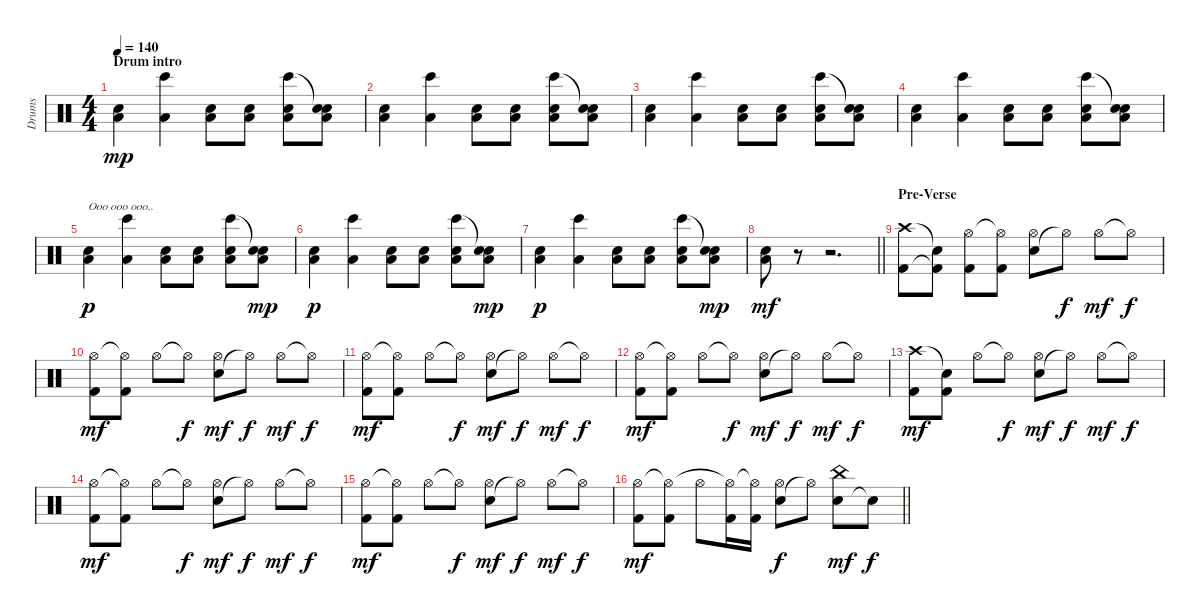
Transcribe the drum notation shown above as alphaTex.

\track ("Drums" "Drums") {instrument percussion}
\staff {score}
\articulation defaults
\ts (4 4)
\section ("" "Drum intro")
\tempo 140
\clef neutral
\ks c
("Low Floor Tom (hit)" "Hand Clap (hit)").4{dy mp} ("Low Floor Tom (hit)" "Bongo High (hit)").4 ("Low Floor Tom (hit)" "Hand Clap (hit)").8 ("Low Floor Tom (hit)" "Hand Clap (hit)").8 ("Low Floor Tom (hit)" "Hand Clap (hit)" "Bongo High (hit)").8 ("Low Floor Tom (hit)" "Hand Clap (hit)" "Snare (hit)"{t}).8 |
("Low Floor Tom (hit)" "Hand Clap (hit)").4 ("Low Floor Tom (hit)" "Bongo High (hit)").4 ("Low Floor Tom (hit)" "Hand Clap (hit)").8 ("Low Floor Tom (hit)" "Hand Clap (hit)").8 ("Low Floor Tom (hit)" "Hand Clap (hit)" "Bongo High (hit)").8 ("Low Floor Tom (hit)" "Hand Clap (hit)" "Snare (hit)"{t}).8 |
("Low Floor Tom (hit)" "Hand Clap (hit)").4 ("Low Floor Tom (hit)" "Bongo High (hit)").4 ("Low Floor Tom (hit)" "Hand Clap (hit)").8 ("Low Floor Tom (hit)" "Hand Clap (hit)").8 ("Low Floor Tom (hit)" "Hand Clap (hit)" "Bongo High (hit)").8 ("Low Floor Tom (hit)" "Hand Clap (hit)" "Snare (hit)"{t}).8 |
("Low Floor Tom (hit)" "Hand Clap (hit)").4 ("Low Floor Tom (hit)" "Bongo High (hit)").4 ("Low Floor Tom (hit)" "Hand Clap (hit)").8 ("Low Floor Tom (hit)" "Hand Clap (hit)").8 ("Low Floor Tom (hit)" "Hand Clap (hit)" "Bongo High (hit)").8 ("Low Floor Tom (hit)" "Hand Clap (hit)" "Snare (hit)"{t}).8 |
("Low Floor Tom (hit)" "Hand Clap (hit)").4{txt "Ooo ooo ooo.." dy p} ("Low Floor Tom (hit)" "Bongo High (hit)").4 ("Low Floor Tom (hit)" "Hand Clap (hit)").8 ("Low Floor Tom (hit)" "Hand Clap (hit)").8 ("Low Floor Tom (hit)" "Hand Clap (hit)" "Bongo High (hit)").8 ("Low Floor Tom (hit)" "Hand Clap (hit)" "Snare (hit)"{t}).8{dy mp} |
("Low Floor Tom (hit)" "Hand Clap (hit)").4{dy p} ("Low Floor Tom (hit)" "Bongo High (hit)").4 ("Low Floor Tom (hit)" "Hand Clap (hit)").8 ("Low Floor Tom (hit)" "Hand Clap (hit)").8 ("Low Floor Tom (hit)" "Hand Clap (hit)" "Bongo High (hit)").8 ("Low Floor Tom (hit)" "Hand Clap (hit)" "Snare (hit)"{t}).8{dy mp} |
("Low Floor Tom (hit)" "Hand Clap (hit)").4{dy p} ("Low Floor Tom (hit)" "Bongo High (hit)").4 ("Low Floor Tom (hit)" "Hand Clap (hit)").8 ("Low Floor Tom (hit)" "Hand Clap (hit)").8 ("Low Floor Tom (hit)" "Hand Clap (hit)" "Bongo High (hit)").8 ("Low Floor Tom (hit)" "Hand Clap (hit)" "Snare (hit)"{t}).8{dy mp} |
\barLineRight lightlight
("Low Floor Tom (hit)" "Hand Clap (hit)").8{dy mf} r.8 r.2{d} |
\section ("" "Pre-Verse")
("Kick (hit) 2" "Crash high (hit)").8 ("Kick (hit) 2"{t} "Snare (hit)"{t}).8 ("Kick (hit) 2" "Hi-Hat (open)").8 ("Kick (hit) 2" "Hi-Hat (open)"{t}).8 ("Snare (hit) 2" "Hi-Hat (open)").8 "Hi-Hat (open)"{t}.8{dy f} "Hi-Hat (open)".8{dy mf} "Hi-Hat (open)"{t}.8{dy f} |
("Kick (hit) 2" "Hi-Hat (open)").8{dy mf} ("Kick (hit) 2" "Hi-Hat (open)"{t}).8 "Hi-Hat (open)".8 "Hi-Hat (open)"{t}.8{dy f} ("Snare (hit) 2" "Hi-Hat (open)").8{dy mf} "Hi-Hat (open)"{t}.8{dy f} "Hi-Hat (open)".8{dy mf} "Hi-Hat (open)"{t}.8{dy f} |
("Kick (hit) 2" "Hi-Hat (open)").8{dy mf} ("Kick (hit) 2" "Hi-Hat (open)"{t}).8 "Hi-Hat (open)".8 "Hi-Hat (open)"{t}.8{dy f} ("Snare (hit) 2" "Hi-Hat (open)").8{dy mf} "Hi-Hat (open)"{t}.8{dy f} "Hi-Hat (open)".8{dy mf} "Hi-Hat (open)"{t}.8{dy f} |
("Kick (hit) 2" "Hi-Hat (open)").8{dy mf} ("Kick (hit) 2" "Hi-Hat (open)"{t}).8 "Hi-Hat (open)".8 "Hi-Hat (open)"{t}.8{dy f} ("Snare (hit) 2" "Hi-Hat (open)").8{dy mf} "Hi-Hat (open)"{t}.8{dy f} "Hi-Hat (open)".8{dy mf} "Hi-Hat (open)"{t}.8{dy f} |
("Kick (hit) 2" "Crash high (hit)").8{dy mf} ("Kick (hit) 2" "Snare (hit)"{t}).8 "Hi-Hat (open)".8 "Hi-Hat (open)"{t}.8{dy f} ("Snare (hit) 2" "Hi-Hat (open)").8{dy mf} "Hi-Hat (open)"{t}.8{dy f} "Hi-Hat (open)".8{dy mf} "Hi-Hat (open)"{t}.8{dy f} |
("Kick (hit) 2" "Hi-Hat (open)").8{dy mf} ("Kick (hit) 2" "Hi-Hat (open)"{t}).8 "Hi-Hat (open)".8 "Hi-Hat (open)"{t}.8{dy f} ("Snare (hit) 2" "Hi-Hat (open)").8{dy mf} "Hi-Hat (open)"{t}.8{dy f} "Hi-Hat (open)".8{dy mf} "Hi-Hat (open)"{t}.8{dy f} |
("Kick (hit) 2" "Hi-Hat (open)").8{dy mf} ("Kick (hit) 2" "Hi-Hat (open)"{t}).8 "Hi-Hat (open)".8 "Hi-Hat (open)"{t}.8{dy f} ("Snare (hit) 2" "Hi-Hat (open)").8{dy mf} "Hi-Hat (open)"{t}.8{dy f} "Hi-Hat (open)".8{dy mf} "Hi-Hat (open)"{t}.8{dy f} |
\barLineRight lightlight
("Kick (hit) 2" "Hi-Hat (open)").8{dy mf} ("Kick (hit) 2" "Hi-Hat (open)"{t}).8 "Hi-Hat (open)".8 ("Kick (hit) 2" "Hi-Hat (open)"{t}).16 ("Kick (hit) 2" "Hi-Hat (open)"{t}).16 ("Snare (hit) 2" "Hi-Hat (open)").8{dy f} "Hi-Hat (open)"{t}.8 ("Snare (hit) 2" "China (hit)").8{dy mf} "Snare (hit)"{t}.8{dy f}
